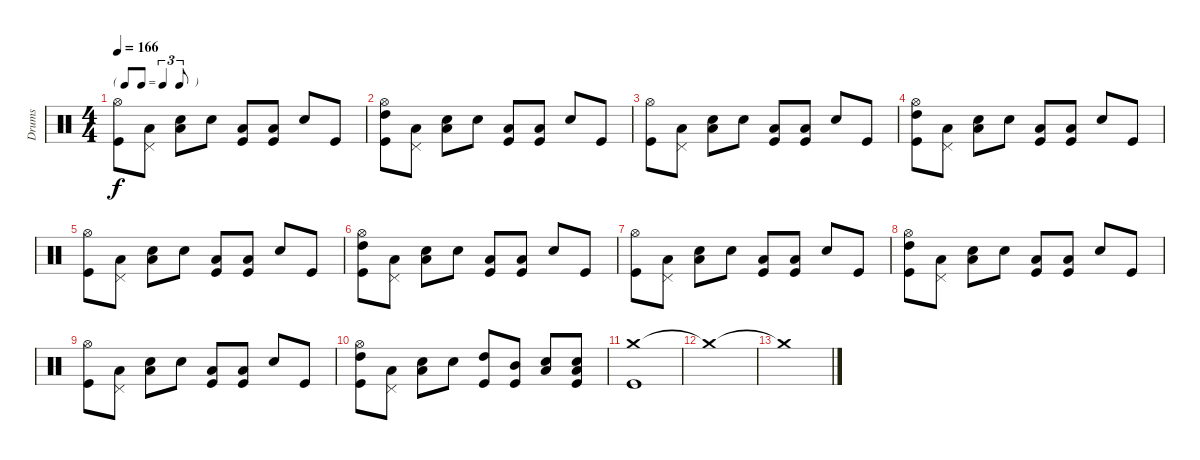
\track ("Drums" "Drums") {instrument percussion}
\staff {score}
\articulation defaults
\ts (4 4)
\tf triplet8th
\tempo 166
\clef neutral
\ks c
("Hi-Hat (open)" "Kick (hit)").8{dy f} ("Pedal Hi-Hat (hit)" "Low Tom (hit)").8 ("Snare (hit) 2" "Low Floor Tom (hit)").8 "Snare (hit) 2".8 ("Low Tom (hit)" "Kick (hit)").8 ("Low Floor Tom (hit)" "Kick (hit)").8 "Snare (hit) 2".8 "Kick (hit)".8 |
("Hi-Hat (open)" "High Tom (hit)" "Kick (hit)").8 ("Pedal Hi-Hat (hit)" "Low Tom (hit)").8 ("Snare (hit) 2" "Low Floor Tom (hit)").8 "Snare (hit) 2".8 ("Low Tom (hit)" "Kick (hit)").8 ("Low Floor Tom (hit)" "Kick (hit)").8 "Snare (hit) 2".8 "Kick (hit)".8 |
("Hi-Hat (open)" "Kick (hit)").8 ("Pedal Hi-Hat (hit)" "Low Tom (hit)").8 ("Snare (hit) 2" "Low Floor Tom (hit)").8 "Snare (hit) 2".8 ("Low Tom (hit)" "Kick (hit)").8 ("Low Floor Tom (hit)" "Kick (hit)").8 "Snare (hit) 2".8 "Kick (hit)".8 |
("Hi-Hat (open)" "High Tom (hit)" "Kick (hit)").8 ("Pedal Hi-Hat (hit)" "Low Tom (hit)").8 ("Snare (hit) 2" "Low Floor Tom (hit)").8 "Snare (hit) 2".8 ("Low Tom (hit)" "Kick (hit)").8 ("Low Floor Tom (hit)" "Kick (hit)").8 "Snare (hit) 2".8 "Kick (hit)".8 |
("Hi-Hat (open)" "Kick (hit)").8 ("Pedal Hi-Hat (hit)" "Low Tom (hit)").8 ("Snare (hit) 2" "Low Floor Tom (hit)").8 "Snare (hit) 2".8 ("Low Tom (hit)" "Kick (hit)").8 ("Low Floor Tom (hit)" "Kick (hit)").8 "Snare (hit) 2".8 "Kick (hit)".8 |
("Hi-Hat (open)" "High Tom (hit)" "Kick (hit)").8 ("Pedal Hi-Hat (hit)" "Low Tom (hit)").8 ("Snare (hit) 2" "Low Floor Tom (hit)").8 "Snare (hit) 2".8 ("Low Tom (hit)" "Kick (hit)").8 ("Low Floor Tom (hit)" "Kick (hit)").8 "Snare (hit) 2".8 "Kick (hit)".8 |
("Hi-Hat (open)" "Kick (hit)").8 ("Pedal Hi-Hat (hit)" "Low Tom (hit)").8 ("Snare (hit) 2" "Low Floor Tom (hit)").8 "Snare (hit) 2".8 ("Low Tom (hit)" "Kick (hit)").8 ("Low Floor Tom (hit)" "Kick (hit)").8 "Snare (hit) 2".8 "Kick (hit)".8 |
("Hi-Hat (open)" "High Tom (hit)" "Kick (hit)").8 ("Pedal Hi-Hat (hit)" "Low Tom (hit)").8 ("Snare (hit) 2" "Low Floor Tom (hit)").8 "Snare (hit) 2".8 ("Low Tom (hit)" "Kick (hit)").8 ("Low Floor Tom (hit)" "Kick (hit)").8 "Snare (hit) 2".8 "Kick (hit)".8 |
("Hi-Hat (open)" "Kick (hit)").8 ("Pedal Hi-Hat (hit)" "Low Tom (hit)").8 ("Snare (hit) 2" "Low Floor Tom (hit)").8 "Snare (hit) 2".8 ("Low Tom (hit)" "Kick (hit)").8 ("Low Floor Tom (hit)" "Kick (hit)").8 "Snare (hit) 2".8 "Kick (hit)".8 |
("Hi-Hat (open)" "High Tom (hit)" "Kick (hit)").8 ("Pedal Hi-Hat (hit)" "Low Tom (hit)").8 ("Snare (hit) 2" "Low Floor Tom (hit)").8 "Snare (hit) 2".8 ("High Tom (hit)" "Kick (hit)").8 ("Mid Tom (hit)" "Kick (hit)").8 ("Snare (hit) 2" "Low Tom (hit)").8 ("Snare (hit) 2" "Low Floor Tom (hit)" "Kick (hit)").8 |
("Crash medium (hit)" "Kick (hit)").1 |
"Crash medium (hit)"{t}.1 |
"Crash medium (hit)"{t}.1
